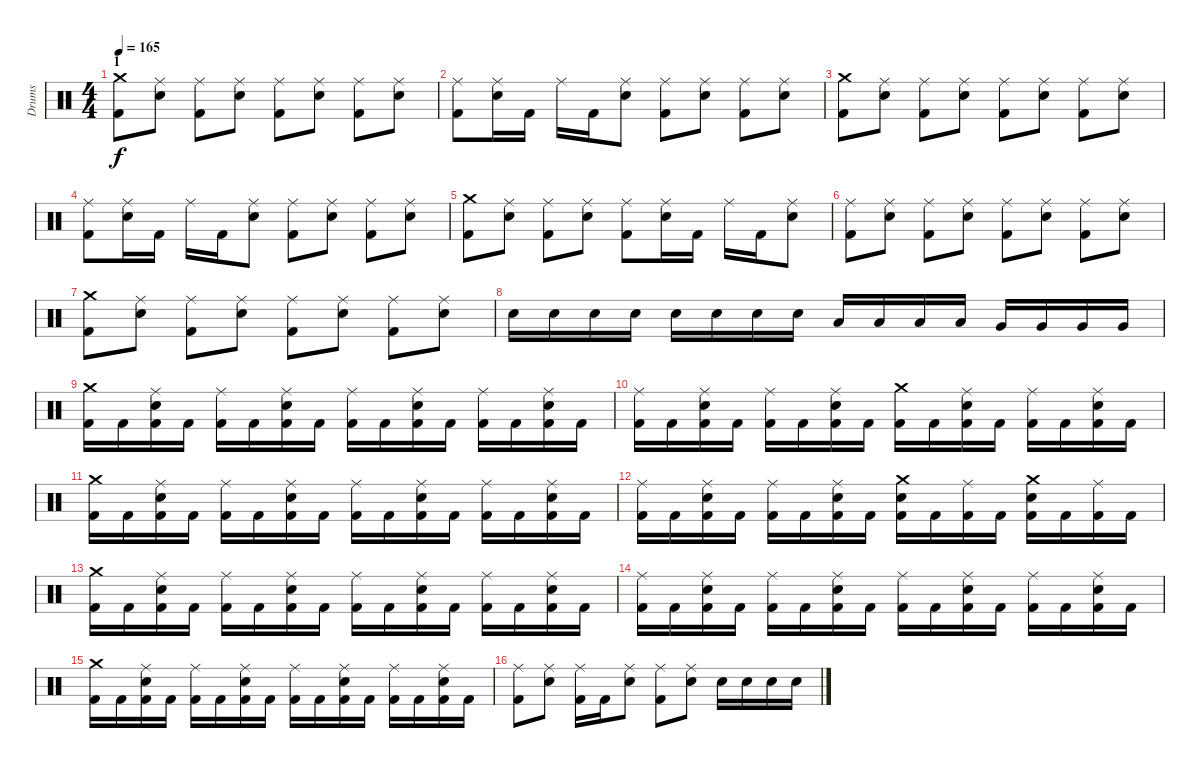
\track ("Drums" "Drums") {instrument percussion}
\staff {score}
\articulation defaults
\ts (4 4)
\section ("" "1")
\tempo 165
\clef neutral
\ks c
("Crash medium (hit)" "Kick (hit) 2").8{dy f} ("Ride (middle)" "Electric Snare (hit)").8 ("Ride (middle)" "Kick (hit) 2").8 ("Ride (middle)" "Electric Snare (hit)").8 ("Ride (middle)" "Kick (hit) 2").8 ("Ride (middle)" "Electric Snare (hit)").8 ("Ride (middle)" "Kick (hit) 2").8 ("Ride (middle)" "Electric Snare (hit)").8 |
("Ride (middle)" "Kick (hit) 2").8 ("Ride (middle)" "Electric Snare (hit)").16 "Kick (hit) 2".16 "Ride (middle)".16 "Kick (hit) 2".16 ("Ride (middle)" "Electric Snare (hit)").8 ("Ride (middle)" "Kick (hit) 2").8 ("Ride (middle)" "Electric Snare (hit)").8 ("Ride (middle)" "Kick (hit) 2").8 ("Ride (middle)" "Electric Snare (hit)").8 |
("Crash medium (hit)" "Kick (hit) 2").8 ("Ride (middle)" "Electric Snare (hit)").8 ("Ride (middle)" "Kick (hit) 2").8 ("Ride (middle)" "Electric Snare (hit)").8 ("Ride (middle)" "Kick (hit) 2").8 ("Ride (middle)" "Electric Snare (hit)").8 ("Ride (middle)" "Kick (hit) 2").8 ("Ride (middle)" "Electric Snare (hit)").8 |
("Ride (middle)" "Kick (hit) 2").8 ("Ride (middle)" "Electric Snare (hit)").16 "Kick (hit) 2".16 "Ride (middle)".16 "Kick (hit) 2".16 ("Ride (middle)" "Electric Snare (hit)").8 ("Ride (middle)" "Kick (hit) 2").8 ("Ride (middle)" "Electric Snare (hit)").8 ("Ride (middle)" "Kick (hit) 2").8 ("Ride (middle)" "Electric Snare (hit)").8 |
("Crash medium (hit)" "Kick (hit) 2").8 ("Ride (middle)" "Electric Snare (hit)").8 ("Ride (middle)" "Kick (hit) 2").8 ("Ride (middle)" "Electric Snare (hit)").8 ("Ride (middle)" "Kick (hit) 2").8 ("Ride (middle)" "Electric Snare (hit)").16 "Kick (hit) 2".16 "Ride (middle)".16 "Kick (hit) 2".16 ("Ride (middle)" "Electric Snare (hit)").8 |
("Ride (middle)" "Kick (hit) 2").8 ("Ride (middle)" "Electric Snare (hit)").8 ("Ride (middle)" "Kick (hit) 2").8 ("Ride (middle)" "Electric Snare (hit)").8 ("Ride (middle)" "Kick (hit) 2").8 ("Ride (middle)" "Electric Snare (hit)").8 ("Ride (middle)" "Kick (hit) 2").8 ("Ride (middle)" "Electric Snare (hit)").8 |
("Crash medium (hit)" "Kick (hit) 2").8 ("Ride (middle)" "Electric Snare (hit)").8 ("Ride (middle)" "Kick (hit) 2").8 ("Ride (middle)" "Electric Snare (hit)").8 ("Ride (middle)" "Kick (hit) 2").8 ("Ride (middle)" "Electric Snare (hit)").8 ("Ride (middle)" "Kick (hit) 2").8 ("Ride (middle)" "Electric Snare (hit)").8 |
"Electric Snare (hit)".16 "Electric Snare (hit)".16 "Electric Snare (hit)".16 "Electric Snare (hit)".16 "Electric Snare (hit)".16 "Electric Snare (hit)".16 "Electric Snare (hit)".16 "Electric Snare (hit)".16 "Low Tom (hit)".16 "Low Tom (hit)".16 "Low Tom (hit)".16 "Low Tom (hit)".16 "Very Low Tom (hit)".16 "Very Low Tom (hit)".16 "Very Low Tom (hit)".16 "Very Low Tom (hit)".16 |
("Crash medium (hit)" "Kick (hit) 2").16 "Kick (hit) 2".16 ("Ride (middle)" "Electric Snare (hit)" "Kick (hit) 2").16 "Kick (hit) 2".16 ("Ride (middle)" "Kick (hit) 2").16 "Kick (hit) 2".16 ("Ride (middle)" "Electric Snare (hit)" "Kick (hit) 2").16 "Kick (hit) 2".16 ("Ride (middle)" "Kick (hit) 2").16 "Kick (hit) 2".16 ("Ride (middle)" "Electric Snare (hit)" "Kick (hit) 2").16 "Kick (hit) 2".16 ("Ride (middle)" "Kick (hit) 2").16 "Kick (hit) 2".16 ("Ride (middle)" "Electric Snare (hit)" "Kick (hit) 2").16 "Kick (hit) 2".16 |
("Ride (middle)" "Kick (hit) 2").16 "Kick (hit) 2".16 ("Ride (middle)" "Electric Snare (hit)" "Kick (hit) 2").16 "Kick (hit) 2".16 ("Ride (middle)" "Kick (hit) 2").16 "Kick (hit) 2".16 ("Ride (middle)" "Electric Snare (hit)" "Kick (hit) 2").16 "Kick (hit) 2".16 ("Crash medium (hit)" "Kick (hit) 2").16 "Kick (hit) 2".16 ("Ride (middle)" "Electric Snare (hit)" "Kick (hit) 2").16 "Kick (hit) 2".16 ("Ride (middle)" "Kick (hit) 2").16 "Kick (hit) 2".16 ("Ride (middle)" "Electric Snare (hit)" "Kick (hit) 2").16 "Kick (hit) 2".16 |
("Crash medium (hit)" "Kick (hit) 2").16 "Kick (hit) 2".16 ("Ride (middle)" "Electric Snare (hit)" "Kick (hit) 2").16 "Kick (hit) 2".16 ("Ride (middle)" "Kick (hit) 2").16 "Kick (hit) 2".16 ("Ride (middle)" "Electric Snare (hit)" "Kick (hit) 2").16 "Kick (hit) 2".16 ("Ride (middle)" "Kick (hit) 2").16 "Kick (hit) 2".16 ("Ride (middle)" "Electric Snare (hit)" "Kick (hit) 2").16 "Kick (hit) 2".16 ("Ride (middle)" "Kick (hit) 2").16 "Kick (hit) 2".16 ("Ride (middle)" "Electric Snare (hit)" "Kick (hit) 2").16 "Kick (hit) 2".16 |
("Ride (middle)" "Kick (hit) 2").16 "Kick (hit) 2".16 ("Ride (middle)" "Electric Snare (hit)" "Kick (hit) 2").16 "Kick (hit) 2".16 ("Ride (middle)" "Kick (hit) 2").16 "Kick (hit) 2".16 ("Ride (middle)" "Electric Snare (hit)" "Kick (hit) 2").16 "Kick (hit) 2".16 ("Crash medium (hit)" "Electric Snare (hit)" "Kick (hit) 2").16 "Kick (hit) 2".16 ("Ride (middle)" "Kick (hit) 2").16 "Kick (hit) 2".16 ("Crash medium (hit)" "Electric Snare (hit)" "Kick (hit) 2").16 "Kick (hit) 2".16 ("Ride (middle)" "Kick (hit) 2").16 "Kick (hit) 2".16 |
("Crash medium (hit)" "Kick (hit) 2").16 "Kick (hit) 2".16 ("Ride (middle)" "Electric Snare (hit)" "Kick (hit) 2").16 "Kick (hit) 2".16 ("Ride (middle)" "Kick (hit) 2").16 "Kick (hit) 2".16 ("Ride (middle)" "Electric Snare (hit)" "Kick (hit) 2").16 "Kick (hit) 2".16 ("Ride (middle)" "Kick (hit) 2").16 "Kick (hit) 2".16 ("Ride (middle)" "Electric Snare (hit)" "Kick (hit) 2").16 "Kick (hit) 2".16 ("Ride (middle)" "Kick (hit) 2").16 "Kick (hit) 2".16 ("Ride (middle)" "Electric Snare (hit)" "Kick (hit) 2").16 "Kick (hit) 2".16 |
("Ride (middle)" "Kick (hit) 2").16 "Kick (hit) 2".16 ("Ride (middle)" "Electric Snare (hit)" "Kick (hit) 2").16 "Kick (hit) 2".16 ("Ride (middle)" "Kick (hit) 2").16 "Kick (hit) 2".16 ("Ride (middle)" "Electric Snare (hit)" "Kick (hit) 2").16 "Kick (hit) 2".16 ("Ride (middle)" "Kick (hit) 2").16 "Kick (hit) 2".16 ("Ride (middle)" "Electric Snare (hit)" "Kick (hit) 2").16 "Kick (hit) 2".16 ("Ride (middle)" "Kick (hit) 2").16 "Kick (hit) 2".16 ("Ride (middle)" "Electric Snare (hit)" "Kick (hit) 2").16 "Kick (hit) 2".16 |
("Crash medium (hit)" "Kick (hit) 2").16 "Kick (hit) 2".16 ("Ride (middle)" "Electric Snare (hit)" "Kick (hit) 2").16 "Kick (hit) 2".16 ("Ride (middle)" "Kick (hit) 2").16 "Kick (hit) 2".16 ("Ride (middle)" "Electric Snare (hit)" "Kick (hit) 2").16 "Kick (hit) 2".16 ("Ride (middle)" "Kick (hit) 2").16 "Kick (hit) 2".16 ("Ride (middle)" "Electric Snare (hit)" "Kick (hit) 2").16 "Kick (hit) 2".16 ("Ride (middle)" "Kick (hit) 2").16 "Kick (hit) 2".16 ("Ride (middle)" "Electric Snare (hit)" "Kick (hit) 2").16 "Kick (hit) 2".16 |
("Ride (middle)" "Kick (hit) 2").8 ("Ride (middle)" "Electric Snare (hit)").8 ("Ride (middle)" "Kick (hit) 2").16 "Kick (hit) 2".16 ("Ride (middle)" "Electric Snare (hit)").8 ("Ride (middle)" "Kick (hit) 2").8 ("Ride (middle)" "Electric Snare (hit)").8 "Electric Snare (hit)".16 "Electric Snare (hit)".16 "Electric Snare (hit)".16 "Electric Snare (hit)".16
